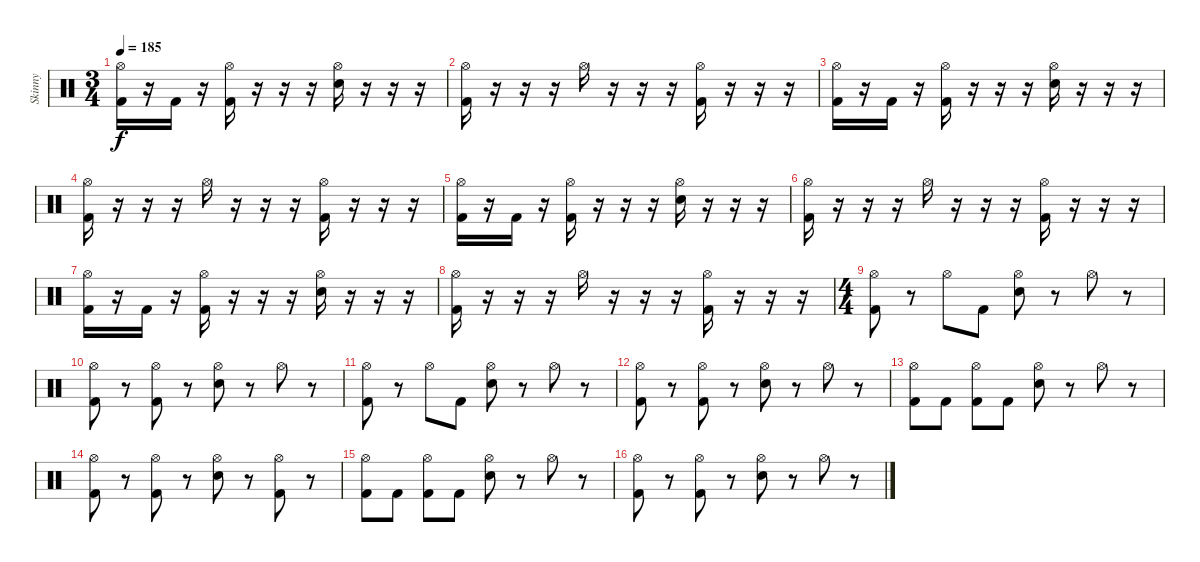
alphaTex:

\track ("Skinny" "Skinny") {instrument percussion}
\staff {score}
\articulation defaults
\ts (3 4)
\tempo 185
\clef neutral
\ks c
("Hi-Hat (open)" "Kick (hit) 2").16{dy f} r.16 "Kick (hit) 2".16 r.16 ("Hi-Hat (open)" "Kick (hit) 2").16 r.16 r.16 r.16 ("Hi-Hat (open)" "Snare (hit) 2").16 r.16 r.16 r.16 |
("Hi-Hat (open)" "Kick (hit) 2").16 r.16 r.16 r.16 "Hi-Hat (open)".16 r.16 r.16 r.16 ("Hi-Hat (open)" "Kick (hit) 2").16 r.16 r.16 r.16 |
("Hi-Hat (open)" "Kick (hit) 2").16 r.16 "Kick (hit) 2".16 r.16 ("Hi-Hat (open)" "Kick (hit) 2").16 r.16 r.16 r.16 ("Hi-Hat (open)" "Snare (hit) 2").16 r.16 r.16 r.16 |
("Hi-Hat (open)" "Kick (hit) 2").16 r.16 r.16 r.16 "Hi-Hat (open)".16 r.16 r.16 r.16 ("Hi-Hat (open)" "Kick (hit) 2").16 r.16 r.16 r.16 |
("Hi-Hat (open)" "Kick (hit) 2").16 r.16 "Kick (hit) 2".16 r.16 ("Hi-Hat (open)" "Kick (hit) 2").16 r.16 r.16 r.16 ("Hi-Hat (open)" "Snare (hit) 2").16 r.16 r.16 r.16 |
("Hi-Hat (open)" "Kick (hit) 2").16 r.16 r.16 r.16 "Hi-Hat (open)".16 r.16 r.16 r.16 ("Hi-Hat (open)" "Kick (hit) 2").16 r.16 r.16 r.16 |
("Hi-Hat (open)" "Kick (hit) 2").16 r.16 "Kick (hit) 2".16 r.16 ("Hi-Hat (open)" "Kick (hit) 2").16 r.16 r.16 r.16 ("Hi-Hat (open)" "Snare (hit) 2").16 r.16 r.16 r.16 |
("Hi-Hat (open)" "Kick (hit) 2").16 r.16 r.16 r.16 "Hi-Hat (open)".16 r.16 r.16 r.16 ("Hi-Hat (open)" "Kick (hit) 2").16 r.16 r.16 r.16 |
\ts (4 4)
("Hi-Hat (open)" "Kick (hit) 2").8 r.8 "Hi-Hat (open)".8 "Kick (hit) 2".8 ("Hi-Hat (open)" "Snare (hit) 2").8 r.8 "Hi-Hat (open)".8 r.8 |
("Hi-Hat (open)" "Kick (hit) 2").8 r.8 ("Hi-Hat (open)" "Kick (hit) 2").8 r.8 ("Hi-Hat (open)" "Snare (hit) 2").8 r.8 "Hi-Hat (open)".8 r.8 |
("Hi-Hat (open)" "Kick (hit) 2").8 r.8 "Hi-Hat (open)".8 "Kick (hit) 2".8 ("Hi-Hat (open)" "Snare (hit) 2").8 r.8 "Hi-Hat (open)".8 r.8 |
("Hi-Hat (open)" "Kick (hit) 2").8 r.8 ("Hi-Hat (open)" "Kick (hit) 2").8 r.8 ("Hi-Hat (open)" "Snare (hit) 2").8 r.8 "Hi-Hat (open)".8 r.8 |
("Hi-Hat (open)" "Kick (hit) 2").8 "Kick (hit) 2".8 ("Hi-Hat (open)" "Kick (hit) 2").8 "Kick (hit) 2".8 ("Hi-Hat (open)" "Snare (hit) 2").8 r.8 "Hi-Hat (open)".8 r.8 |
("Hi-Hat (open)" "Kick (hit) 2").8 r.8 ("Hi-Hat (open)" "Kick (hit) 2").8 r.8 ("Hi-Hat (open)" "Snare (hit) 2").8 r.8 ("Hi-Hat (open)" "Kick (hit) 2").8 r.8 |
("Hi-Hat (open)" "Kick (hit) 2").8 "Kick (hit) 2".8 ("Hi-Hat (open)" "Kick (hit) 2").8 "Kick (hit) 2".8 ("Hi-Hat (open)" "Snare (hit) 2").8 r.8 "Hi-Hat (open)".8 r.8 |
("Hi-Hat (open)" "Kick (hit) 2").8 r.8 ("Hi-Hat (open)" "Kick (hit) 2").8 r.8 ("Hi-Hat (open)" "Snare (hit) 2").8 r.8 "Hi-Hat (open)".8 r.8
